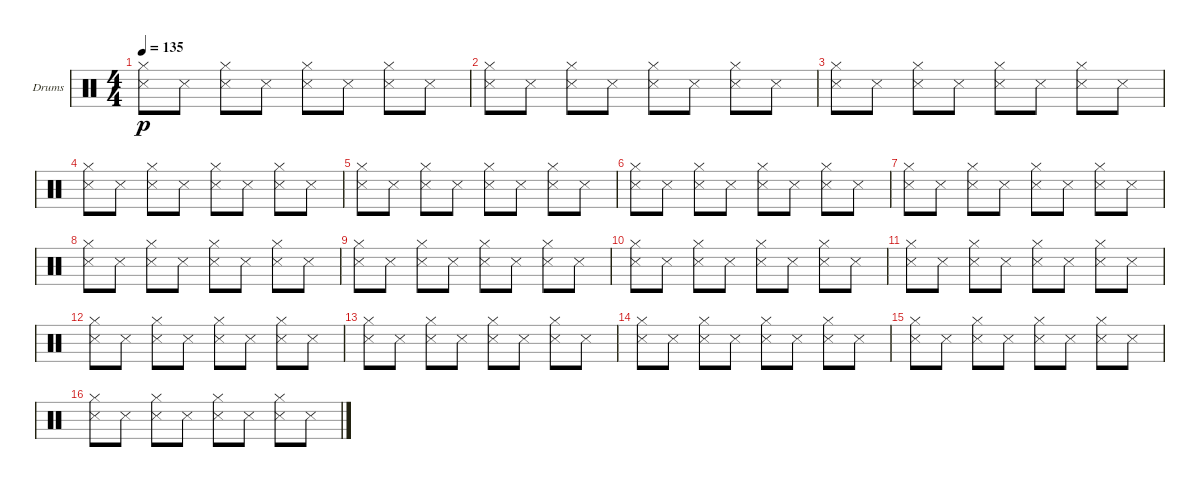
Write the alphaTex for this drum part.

\defaultSystemsLayout 4
\bracketExtendMode groupsimilarinstruments
\firstSystemTrackNameOrientation horizontal
\otherSystemsTrackNameOrientation horizontal
\track ("Drumkit" "Drums") {instrument percussion}
\staff {score}
\articulation defaults
\ts (4 4)
\tempo 135
\clef neutral
\scale
0.333333
\ks c
("Hi-Hat (closed)" "Snare (side stick) 3").8{dy p} "Snare (side stick) 3".8 ("Hi-Hat (closed)" "Snare (side stick) 3").8 "Snare (side stick) 3".8 ("Hi-Hat (closed)" "Snare (side stick) 3").8 "Snare (side stick) 3".8 ("Hi-Hat (closed)" "Snare (side stick) 3").8 "Snare (side stick) 3".8 |
\scale
0.333333 ("Hi-Hat (closed)" "Snare (side stick) 3").8 "Snare (side stick) 3".8 ("Hi-Hat (closed)" "Snare (side stick) 3").8 "Snare (side stick) 3".8 ("Hi-Hat (closed)" "Snare (side stick) 3").8 "Snare (side stick) 3".8 ("Hi-Hat (closed)" "Snare (side stick) 3").8 "Snare (side stick) 3".8 |
\scale
0.333333 ("Hi-Hat (closed)" "Snare (side stick) 3").8 "Snare (side stick) 3".8 ("Hi-Hat (closed)" "Snare (side stick) 3").8 "Snare (side stick) 3".8 ("Hi-Hat (closed)" "Snare (side stick) 3").8 "Snare (side stick) 3".8 ("Hi-Hat (closed)" "Snare (side stick) 3").8 "Snare (side stick) 3".8 |
\scale
0.333333 ("Hi-Hat (closed)" "Snare (side stick) 3").8 "Snare (side stick) 3".8 ("Hi-Hat (closed)" "Snare (side stick) 3").8 "Snare (side stick) 3".8 ("Hi-Hat (closed)" "Snare (side stick) 3").8 "Snare (side stick) 3".8 ("Hi-Hat (closed)" "Snare (side stick) 3").8 "Snare (side stick) 3".8 |
\scale
0.333333 ("Hi-Hat (closed)" "Snare (side stick) 3").8 "Snare (side stick) 3".8 ("Hi-Hat (closed)" "Snare (side stick) 3").8 "Snare (side stick) 3".8 ("Hi-Hat (closed)" "Snare (side stick) 3").8 "Snare (side stick) 3".8 ("Hi-Hat (closed)" "Snare (side stick) 3").8 "Snare (side stick) 3".8 |
\scale
0.333333 ("Hi-Hat (closed)" "Snare (side stick) 3").8 "Snare (side stick) 3".8 ("Hi-Hat (closed)" "Snare (side stick) 3").8 "Snare (side stick) 3".8 ("Hi-Hat (closed)" "Snare (side stick) 3").8 "Snare (side stick) 3".8 ("Hi-Hat (closed)" "Snare (side stick) 3").8 "Snare (side stick) 3".8 |
\scale
0.333333 ("Hi-Hat (closed)" "Snare (side stick) 3").8 "Snare (side stick) 3".8 ("Hi-Hat (closed)" "Snare (side stick) 3").8 "Snare (side stick) 3".8 ("Hi-Hat (closed)" "Snare (side stick) 3").8 "Snare (side stick) 3".8 ("Hi-Hat (closed)" "Snare (side stick) 3").8 "Snare (side stick) 3".8 |
\scale
0.333333 ("Hi-Hat (closed)" "Snare (side stick) 3").8 "Snare (side stick) 3".8 ("Hi-Hat (closed)" "Snare (side stick) 3").8 "Snare (side stick) 3".8 ("Hi-Hat (closed)" "Snare (side stick) 3").8 "Snare (side stick) 3".8 ("Hi-Hat (closed)" "Snare (side stick) 3").8 "Snare (side stick) 3".8 |
\scale
0.333333 ("Hi-Hat (closed)" "Snare (side stick) 3").8 "Snare (side stick) 3".8 ("Hi-Hat (closed)" "Snare (side stick) 3").8 "Snare (side stick) 3".8 ("Hi-Hat (closed)" "Snare (side stick) 3").8 "Snare (side stick) 3".8 ("Hi-Hat (closed)" "Snare (side stick) 3").8 "Snare (side stick) 3".8 |
\scale
0.333333 ("Hi-Hat (closed)" "Snare (side stick) 3").8 "Snare (side stick) 3".8 ("Hi-Hat (closed)" "Snare (side stick) 3").8 "Snare (side stick) 3".8 ("Hi-Hat (closed)" "Snare (side stick) 3").8 "Snare (side stick) 3".8 ("Hi-Hat (closed)" "Snare (side stick) 3").8 "Snare (side stick) 3".8 |
\scale
0.333333 ("Hi-Hat (closed)" "Snare (side stick) 3").8 "Snare (side stick) 3".8 ("Hi-Hat (closed)" "Snare (side stick) 3").8 "Snare (side stick) 3".8 ("Hi-Hat (closed)" "Snare (side stick) 3").8 "Snare (side stick) 3".8 ("Hi-Hat (closed)" "Snare (side stick) 3").8 "Snare (side stick) 3".8 |
\scale
0.333333 ("Hi-Hat (closed)" "Snare (side stick) 3").8 "Snare (side stick) 3".8 ("Hi-Hat (closed)" "Snare (side stick) 3").8 "Snare (side stick) 3".8 ("Hi-Hat (closed)" "Snare (side stick) 3").8 "Snare (side stick) 3".8 ("Hi-Hat (closed)" "Snare (side stick) 3").8 "Snare (side stick) 3".8 |
\scale
0.333333 ("Hi-Hat (closed)" "Snare (side stick) 3").8 "Snare (side stick) 3".8 ("Hi-Hat (closed)" "Snare (side stick) 3").8 "Snare (side stick) 3".8 ("Hi-Hat (closed)" "Snare (side stick) 3").8 "Snare (side stick) 3".8 ("Hi-Hat (closed)" "Snare (side stick) 3").8 "Snare (side stick) 3".8 |
\scale
0.333333 ("Hi-Hat (closed)" "Snare (side stick) 3").8 "Snare (side stick) 3".8 ("Hi-Hat (closed)" "Snare (side stick) 3").8 "Snare (side stick) 3".8 ("Hi-Hat (closed)" "Snare (side stick) 3").8 "Snare (side stick) 3".8 ("Hi-Hat (closed)" "Snare (side stick) 3").8 "Snare (side stick) 3".8 |
\scale
0.333333 ("Hi-Hat (closed)" "Snare (side stick) 3").8 "Snare (side stick) 3".8 ("Hi-Hat (closed)" "Snare (side stick) 3").8 "Snare (side stick) 3".8 ("Hi-Hat (closed)" "Snare (side stick) 3").8 "Snare (side stick) 3".8 ("Hi-Hat (closed)" "Snare (side stick) 3").8 "Snare (side stick) 3".8 |
\scale
0.333333 ("Hi-Hat (closed)" "Snare (side stick) 3").8 "Snare (side stick) 3".8 ("Hi-Hat (closed)" "Snare (side stick) 3").8 "Snare (side stick) 3".8 ("Hi-Hat (closed)" "Snare (side stick) 3").8 "Snare (side stick) 3".8 ("Hi-Hat (closed)" "Snare (side stick) 3").8 "Snare (side stick) 3".8
